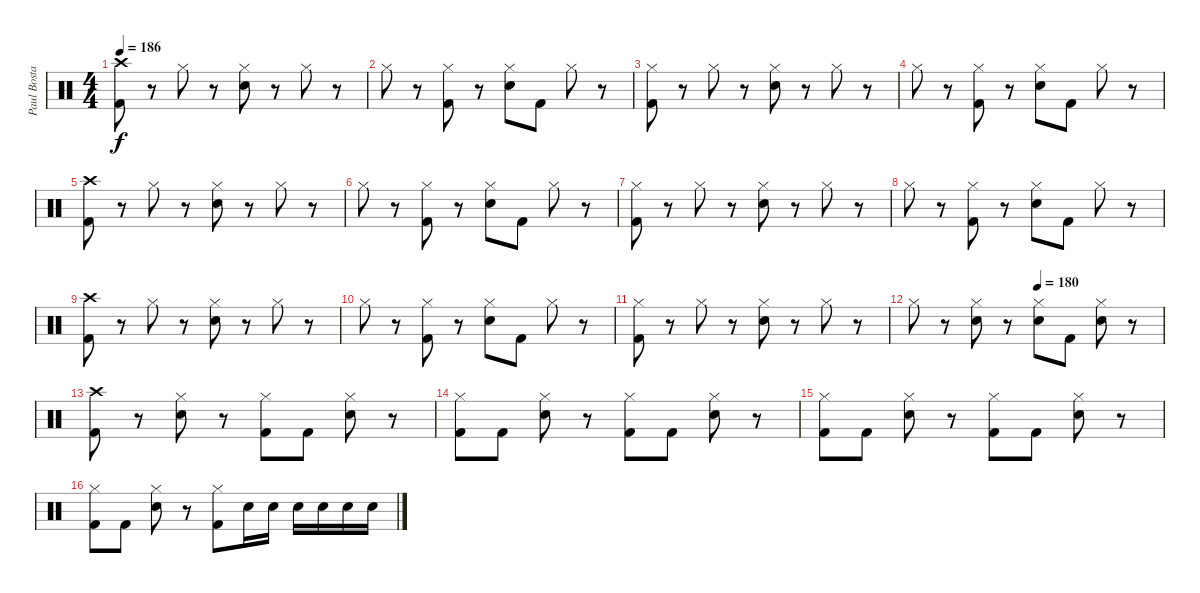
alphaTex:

\track ("Paul Bostaph" "Paul Bosta") {instrument percussion}
\staff {score}
\articulation defaults
\ts (4 4)
\tempo 186
\clef neutral
\ks c
("Crash high (hit)" "Kick (hit) 2").8{dy f} r.8 "Hi-Hat (closed)".8 r.8 ("Hi-Hat (closed)" "Electric Snare (hit)").8 r.8 "Hi-Hat (closed)".8 r.8 |
"Hi-Hat (closed)".8 r.8 ("Hi-Hat (closed)" "Kick (hit) 2").8 r.8 ("Hi-Hat (closed)" "Electric Snare (hit)").8 "Kick (hit) 2".8 "Hi-Hat (closed)".8 r.8 |
("Hi-Hat (closed)" "Kick (hit) 2").8 r.8 "Hi-Hat (closed)".8 r.8 ("Hi-Hat (closed)" "Electric Snare (hit)").8 r.8 "Hi-Hat (closed)".8 r.8 |
"Hi-Hat (closed)".8 r.8 ("Hi-Hat (closed)" "Kick (hit) 2").8 r.8 ("Hi-Hat (closed)" "Electric Snare (hit)").8 "Kick (hit) 2".8 "Hi-Hat (closed)".8 r.8 |
("Crash high (hit)" "Kick (hit) 2").8 r.8 "Hi-Hat (closed)".8 r.8 ("Hi-Hat (closed)" "Electric Snare (hit)").8 r.8 "Hi-Hat (closed)".8 r.8 |
"Hi-Hat (closed)".8 r.8 ("Hi-Hat (closed)" "Kick (hit) 2").8 r.8 ("Hi-Hat (closed)" "Electric Snare (hit)").8 "Kick (hit) 2".8 "Hi-Hat (closed)".8 r.8 |
("Hi-Hat (closed)" "Kick (hit) 2").8 r.8 "Hi-Hat (closed)".8 r.8 ("Hi-Hat (closed)" "Electric Snare (hit)").8 r.8 "Hi-Hat (closed)".8 r.8 |
"Hi-Hat (closed)".8 r.8 ("Hi-Hat (closed)" "Kick (hit) 2").8 r.8 ("Hi-Hat (closed)" "Electric Snare (hit)").8 "Kick (hit) 2".8 "Hi-Hat (closed)".8 r.8 |
("Crash high (hit)" "Kick (hit) 2").8 r.8 "Hi-Hat (closed)".8 r.8 ("Hi-Hat (closed)" "Electric Snare (hit)").8 r.8 "Hi-Hat (closed)".8 r.8 |
"Hi-Hat (closed)".8 r.8 ("Hi-Hat (closed)" "Kick (hit) 2").8 r.8 ("Hi-Hat (closed)" "Electric Snare (hit)").8 "Kick (hit) 2".8 "Hi-Hat (closed)".8 r.8 |
("Hi-Hat (closed)" "Kick (hit) 2").8 r.8 "Hi-Hat (closed)".8 r.8 ("Hi-Hat (closed)" "Electric Snare (hit)").8 r.8 "Hi-Hat (closed)".8 r.8 |
\tempo (180 0.5)
"Hi-Hat (closed)".8 r.8 ("Hi-Hat (closed)" "Electric Snare (hit)").8 r.8 ("Hi-Hat (closed)" "Electric Snare (hit)").8 "Kick (hit) 2".8 ("Hi-Hat (closed)" "Electric Snare (hit)").8 r.8 |
("Crash high (hit)" "Kick (hit) 2").8 r.8 ("Hi-Hat (closed)" "Electric Snare (hit)").8 r.8 ("Hi-Hat (closed)" "Kick (hit) 2").8 "Kick (hit) 2".8 ("Hi-Hat (closed)" "Electric Snare (hit)").8 r.8 |
("Hi-Hat (closed)" "Kick (hit) 2").8 "Kick (hit) 2".8 ("Hi-Hat (closed)" "Electric Snare (hit)").8 r.8 ("Hi-Hat (closed)" "Kick (hit) 2").8 "Kick (hit) 2".8 ("Hi-Hat (closed)" "Electric Snare (hit)").8 r.8 |
("Hi-Hat (closed)" "Kick (hit) 2").8 "Kick (hit) 2".8 ("Hi-Hat (closed)" "Electric Snare (hit)").8 r.8 ("Hi-Hat (closed)" "Kick (hit) 2").8 "Kick (hit) 2".8 ("Hi-Hat (closed)" "Electric Snare (hit)").8 r.8 |
("Hi-Hat (closed)" "Kick (hit) 2").8 "Kick (hit) 2".8 ("Hi-Hat (closed)" "Electric Snare (hit)").8 r.8 ("Hi-Hat (closed)" "Kick (hit) 2").8 "Electric Snare (hit)".16 "Electric Snare (hit)".16 "Electric Snare (hit)".16 "Electric Snare (hit)".16 "Electric Snare (hit)".16 "Electric Snare (hit)".16
